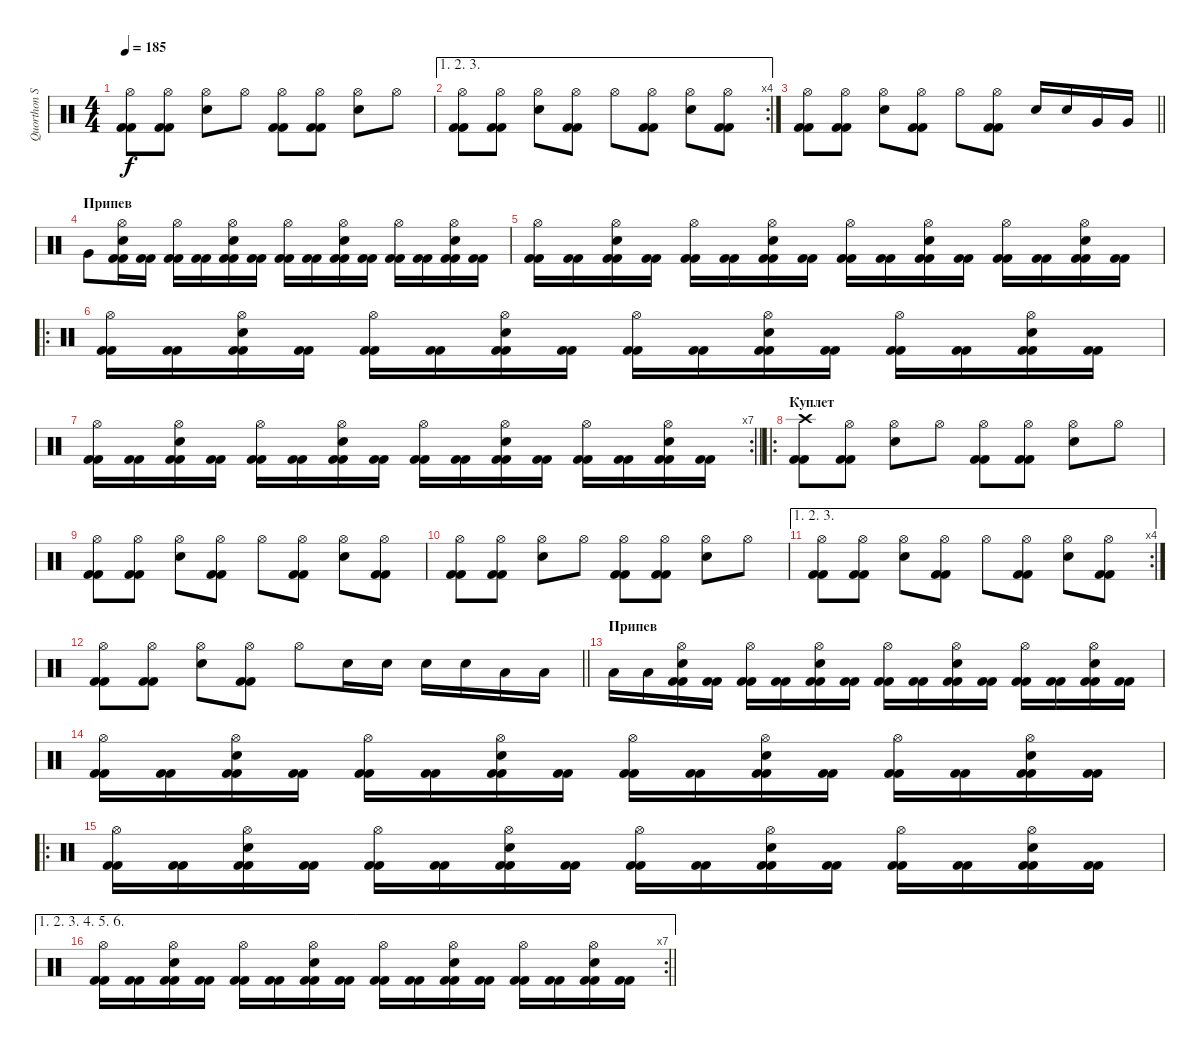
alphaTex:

\track ("Quorthon Seth" "Quorthon S") {instrument percussion}
\staff {score}
\articulation defaults
\ts (4 4)
\tempo 185
\clef neutral
\ks c
("Hi-Hat (open)" "Kick (hit) 2" "Kick (hit) 2").8{dy f} ("Hi-Hat (open)" "Kick (hit) 2" "Kick (hit) 2").8 ("Hi-Hat (open)" "Electric Snare (hit)").8 "Hi-Hat (open)".8 ("Hi-Hat (open)" "Kick (hit) 2" "Kick (hit) 2").8 ("Hi-Hat (open)" "Kick (hit) 2" "Kick (hit) 2").8 ("Hi-Hat (open)" "Electric Snare (hit)").8 "Hi-Hat (open)".8 |
\ae (1 2 3)
\rc 4
("Hi-Hat (open)" "Kick (hit) 2" "Kick (hit) 2").8 ("Hi-Hat (open)" "Kick (hit) 2" "Kick (hit) 2").8 ("Hi-Hat (open)" "Electric Snare (hit)").8 ("Hi-Hat (open)" "Kick (hit) 2" "Kick (hit) 2").8 "Hi-Hat (open)".8 ("Hi-Hat (open)" "Kick (hit) 2" "Kick (hit) 2").8 ("Hi-Hat (open)" "Electric Snare (hit)").8 ("Hi-Hat (open)" "Kick (hit) 2" "Kick (hit) 2").8 |
\barLineRight lightlight
("Hi-Hat (open)" "Kick (hit) 2" "Kick (hit) 2").8 ("Hi-Hat (open)" "Kick (hit) 2" "Kick (hit) 2").8 ("Hi-Hat (open)" "Electric Snare (hit)").8 ("Hi-Hat (open)" "Kick (hit) 2" "Kick (hit) 2").8 "Hi-Hat (open)".8 ("Hi-Hat (open)" "Kick (hit) 2" "Kick (hit) 2").8 "Electric Snare (hit)".16 "Electric Snare (hit)".16 "Very Low Tom (hit)".16 "Very Low Tom (hit)".16 |
\section ("" "Припев")
"Very Low Tom (hit)".8 ("Hi-Hat (open)" "Kick (hit) 2" "Kick (hit) 2" "Electric Snare (hit)").16 ("Kick (hit) 2" "Kick (hit) 2").16 ("Hi-Hat (open)" "Kick (hit) 2" "Kick (hit) 2").16 ("Kick (hit) 2" "Kick (hit) 2").16 ("Hi-Hat (open)" "Kick (hit) 2" "Kick (hit) 2" "Electric Snare (hit)").16 ("Kick (hit) 2" "Kick (hit) 2").16 ("Hi-Hat (open)" "Kick (hit) 2" "Kick (hit) 2").16 ("Kick (hit) 2" "Kick (hit) 2").16 ("Hi-Hat (open)" "Kick (hit) 2" "Kick (hit) 2" "Electric Snare (hit)").16 ("Kick (hit) 2" "Kick (hit) 2").16 ("Hi-Hat (open)" "Kick (hit) 2" "Kick (hit) 2").16 ("Kick (hit) 2" "Kick (hit) 2").16 ("Hi-Hat (open)" "Kick (hit) 2" "Kick (hit) 2" "Electric Snare (hit)").16 ("Kick (hit) 2" "Kick (hit) 2").16 |
("Hi-Hat (open)" "Kick (hit) 2" "Kick (hit) 2").16 ("Kick (hit) 2" "Kick (hit) 2").16 ("Hi-Hat (open)" "Kick (hit) 2" "Kick (hit) 2" "Electric Snare (hit)").16 ("Kick (hit) 2" "Kick (hit) 2").16 ("Hi-Hat (open)" "Kick (hit) 2" "Kick (hit) 2").16 ("Kick (hit) 2" "Kick (hit) 2").16 ("Hi-Hat (open)" "Kick (hit) 2" "Kick (hit) 2" "Electric Snare (hit)").16 ("Kick (hit) 2" "Kick (hit) 2").16 ("Hi-Hat (open)" "Kick (hit) 2" "Kick (hit) 2").16 ("Kick (hit) 2" "Kick (hit) 2").16 ("Hi-Hat (open)" "Kick (hit) 2" "Kick (hit) 2" "Electric Snare (hit)").16 ("Kick (hit) 2" "Kick (hit) 2").16 ("Hi-Hat (open)" "Kick (hit) 2" "Kick (hit) 2").16 ("Kick (hit) 2" "Kick (hit) 2").16 ("Hi-Hat (open)" "Kick (hit) 2" "Kick (hit) 2" "Electric Snare (hit)").16 ("Kick (hit) 2" "Kick (hit) 2").16 |
\ro
("Hi-Hat (open)" "Kick (hit) 2" "Kick (hit) 2").16 ("Kick (hit) 2" "Kick (hit) 2").16 ("Hi-Hat (open)" "Kick (hit) 2" "Kick (hit) 2" "Electric Snare (hit)").16 ("Kick (hit) 2" "Kick (hit) 2").16 ("Hi-Hat (open)" "Kick (hit) 2" "Kick (hit) 2").16 ("Kick (hit) 2" "Kick (hit) 2").16 ("Hi-Hat (open)" "Kick (hit) 2" "Kick (hit) 2" "Electric Snare (hit)").16 ("Kick (hit) 2" "Kick (hit) 2").16 ("Hi-Hat (open)" "Kick (hit) 2" "Kick (hit) 2").16 ("Kick (hit) 2" "Kick (hit) 2").16 ("Hi-Hat (open)" "Kick (hit) 2" "Kick (hit) 2" "Electric Snare (hit)").16 ("Kick (hit) 2" "Kick (hit) 2").16 ("Hi-Hat (open)" "Kick (hit) 2" "Kick (hit) 2").16 ("Kick (hit) 2" "Kick (hit) 2").16 ("Hi-Hat (open)" "Kick (hit) 2" "Kick (hit) 2" "Electric Snare (hit)").16 ("Kick (hit) 2" "Kick (hit) 2").16 |
\rc 7
\barLineRight lightlight
("Hi-Hat (open)" "Kick (hit) 2" "Kick (hit) 2").16 ("Kick (hit) 2" "Kick (hit) 2").16 ("Hi-Hat (open)" "Kick (hit) 2" "Kick (hit) 2" "Electric Snare (hit)").16 ("Kick (hit) 2" "Kick (hit) 2").16 ("Hi-Hat (open)" "Kick (hit) 2" "Kick (hit) 2").16 ("Kick (hit) 2" "Kick (hit) 2").16 ("Hi-Hat (open)" "Kick (hit) 2" "Kick (hit) 2" "Electric Snare (hit)").16 ("Kick (hit) 2" "Kick (hit) 2").16 ("Hi-Hat (open)" "Kick (hit) 2" "Kick (hit) 2").16 ("Kick (hit) 2" "Kick (hit) 2").16 ("Hi-Hat (open)" "Kick (hit) 2" "Kick (hit) 2" "Electric Snare (hit)").16 ("Kick (hit) 2" "Kick (hit) 2").16 ("Hi-Hat (open)" "Kick (hit) 2" "Kick (hit) 2").16 ("Kick (hit) 2" "Kick (hit) 2").16 ("Hi-Hat (open)" "Kick (hit) 2" "Kick (hit) 2" "Electric Snare (hit)").16 ("Kick (hit) 2" "Kick (hit) 2").16 |
\ro
\section ("" "Куплет")
("Crash high (hit)" "Kick (hit) 2" "Kick (hit) 2").8 ("Hi-Hat (open)" "Kick (hit) 2" "Kick (hit) 2").8 ("Hi-Hat (open)" "Electric Snare (hit)").8 "Hi-Hat (open)".8 ("Hi-Hat (open)" "Kick (hit) 2" "Kick (hit) 2").8 ("Hi-Hat (open)" "Kick (hit) 2" "Kick (hit) 2").8 ("Hi-Hat (open)" "Electric Snare (hit)").8 "Hi-Hat (open)".8 |
("Hi-Hat (open)" "Kick (hit) 2" "Kick (hit) 2").8 ("Hi-Hat (open)" "Kick (hit) 2" "Kick (hit) 2").8 ("Hi-Hat (open)" "Electric Snare (hit)").8 ("Hi-Hat (open)" "Kick (hit) 2" "Kick (hit) 2").8 "Hi-Hat (open)".8 ("Hi-Hat (open)" "Kick (hit) 2" "Kick (hit) 2").8 ("Hi-Hat (open)" "Electric Snare (hit)").8 ("Hi-Hat (open)" "Kick (hit) 2" "Kick (hit) 2").8 |
("Hi-Hat (open)" "Kick (hit) 2" "Kick (hit) 2").8 ("Hi-Hat (open)" "Kick (hit) 2" "Kick (hit) 2").8 ("Hi-Hat (open)" "Electric Snare (hit)").8 "Hi-Hat (open)".8 ("Hi-Hat (open)" "Kick (hit) 2" "Kick (hit) 2").8 ("Hi-Hat (open)" "Kick (hit) 2" "Kick (hit) 2").8 ("Hi-Hat (open)" "Electric Snare (hit)").8 "Hi-Hat (open)".8 |
\ae (1 2 3)
\rc 4
("Hi-Hat (open)" "Kick (hit) 2" "Kick (hit) 2").8 ("Hi-Hat (open)" "Kick (hit) 2" "Kick (hit) 2").8 ("Hi-Hat (open)" "Electric Snare (hit)").8 ("Hi-Hat (open)" "Kick (hit) 2" "Kick (hit) 2").8 "Hi-Hat (open)".8 ("Hi-Hat (open)" "Kick (hit) 2" "Kick (hit) 2").8 ("Hi-Hat (open)" "Electric Snare (hit)").8 ("Hi-Hat (open)" "Kick (hit) 2" "Kick (hit) 2").8 |
\barLineRight lightlight
("Hi-Hat (open)" "Kick (hit) 2" "Kick (hit) 2").8 ("Hi-Hat (open)" "Kick (hit) 2" "Kick (hit) 2").8 ("Hi-Hat (open)" "Electric Snare (hit)").8 ("Hi-Hat (open)" "Kick (hit) 2" "Kick (hit) 2").8 "Hi-Hat (open)".8 "Electric Snare (hit)".16 "Electric Snare (hit)".16 "Electric Snare (hit)".16 "Electric Snare (hit)".16 "Low Tom (hit)".16 "Low Tom (hit)".16 |
\section ("" "Припев")
"Low Tom (hit)".16 "Low Tom (hit)".16 ("Hi-Hat (open)" "Kick (hit) 2" "Kick (hit) 2" "Electric Snare (hit)").16 ("Kick (hit) 2" "Kick (hit) 2").16 ("Hi-Hat (open)" "Kick (hit) 2" "Kick (hit) 2").16 ("Kick (hit) 2" "Kick (hit) 2").16 ("Hi-Hat (open)" "Kick (hit) 2" "Kick (hit) 2" "Electric Snare (hit)").16 ("Kick (hit) 2" "Kick (hit) 2").16 ("Hi-Hat (open)" "Kick (hit) 2" "Kick (hit) 2").16 ("Kick (hit) 2" "Kick (hit) 2").16 ("Hi-Hat (open)" "Kick (hit) 2" "Kick (hit) 2" "Electric Snare (hit)").16 ("Kick (hit) 2" "Kick (hit) 2").16 ("Hi-Hat (open)" "Kick (hit) 2" "Kick (hit) 2").16 ("Kick (hit) 2" "Kick (hit) 2").16 ("Hi-Hat (open)" "Kick (hit) 2" "Kick (hit) 2" "Electric Snare (hit)").16 ("Kick (hit) 2" "Kick (hit) 2").16 |
("Hi-Hat (open)" "Kick (hit) 2" "Kick (hit) 2").16 ("Kick (hit) 2" "Kick (hit) 2").16 ("Hi-Hat (open)" "Kick (hit) 2" "Kick (hit) 2" "Electric Snare (hit)").16 ("Kick (hit) 2" "Kick (hit) 2").16 ("Hi-Hat (open)" "Kick (hit) 2" "Kick (hit) 2").16 ("Kick (hit) 2" "Kick (hit) 2").16 ("Hi-Hat (open)" "Kick (hit) 2" "Kick (hit) 2" "Electric Snare (hit)").16 ("Kick (hit) 2" "Kick (hit) 2").16 ("Hi-Hat (open)" "Kick (hit) 2" "Kick (hit) 2").16 ("Kick (hit) 2" "Kick (hit) 2").16 ("Hi-Hat (open)" "Kick (hit) 2" "Kick (hit) 2" "Electric Snare (hit)").16 ("Kick (hit) 2" "Kick (hit) 2").16 ("Hi-Hat (open)" "Kick (hit) 2" "Kick (hit) 2").16 ("Kick (hit) 2" "Kick (hit) 2").16 ("Hi-Hat (open)" "Kick (hit) 2" "Kick (hit) 2" "Electric Snare (hit)").16 ("Kick (hit) 2" "Kick (hit) 2").16 |
\ro
("Hi-Hat (open)" "Kick (hit) 2" "Kick (hit) 2").16 ("Kick (hit) 2" "Kick (hit) 2").16 ("Hi-Hat (open)" "Kick (hit) 2" "Kick (hit) 2" "Electric Snare (hit)").16 ("Kick (hit) 2" "Kick (hit) 2").16 ("Hi-Hat (open)" "Kick (hit) 2" "Kick (hit) 2").16 ("Kick (hit) 2" "Kick (hit) 2").16 ("Hi-Hat (open)" "Kick (hit) 2" "Kick (hit) 2" "Electric Snare (hit)").16 ("Kick (hit) 2" "Kick (hit) 2").16 ("Hi-Hat (open)" "Kick (hit) 2" "Kick (hit) 2").16 ("Kick (hit) 2" "Kick (hit) 2").16 ("Hi-Hat (open)" "Kick (hit) 2" "Kick (hit) 2" "Electric Snare (hit)").16 ("Kick (hit) 2" "Kick (hit) 2").16 ("Hi-Hat (open)" "Kick (hit) 2" "Kick (hit) 2").16 ("Kick (hit) 2" "Kick (hit) 2").16 ("Hi-Hat (open)" "Kick (hit) 2" "Kick (hit) 2" "Electric Snare (hit)").16 ("Kick (hit) 2" "Kick (hit) 2").16 |
\ae (1 2 3 4 5 6)
\rc 7
\barLineRight lightlight
("Hi-Hat (open)" "Kick (hit) 2" "Kick (hit) 2").16 ("Kick (hit) 2" "Kick (hit) 2").16 ("Hi-Hat (open)" "Kick (hit) 2" "Kick (hit) 2" "Electric Snare (hit)").16 ("Kick (hit) 2" "Kick (hit) 2").16 ("Hi-Hat (open)" "Kick (hit) 2" "Kick (hit) 2").16 ("Kick (hit) 2" "Kick (hit) 2").16 ("Hi-Hat (open)" "Kick (hit) 2" "Kick (hit) 2" "Electric Snare (hit)").16 ("Kick (hit) 2" "Kick (hit) 2").16 ("Hi-Hat (open)" "Kick (hit) 2" "Kick (hit) 2").16 ("Kick (hit) 2" "Kick (hit) 2").16 ("Hi-Hat (open)" "Kick (hit) 2" "Kick (hit) 2" "Electric Snare (hit)").16 ("Kick (hit) 2" "Kick (hit) 2").16 ("Hi-Hat (open)" "Kick (hit) 2" "Kick (hit) 2").16 ("Kick (hit) 2" "Kick (hit) 2").16 ("Hi-Hat (open)" "Kick (hit) 2" "Kick (hit) 2" "Electric Snare (hit)").16 ("Kick (hit) 2" "Kick (hit) 2").16
